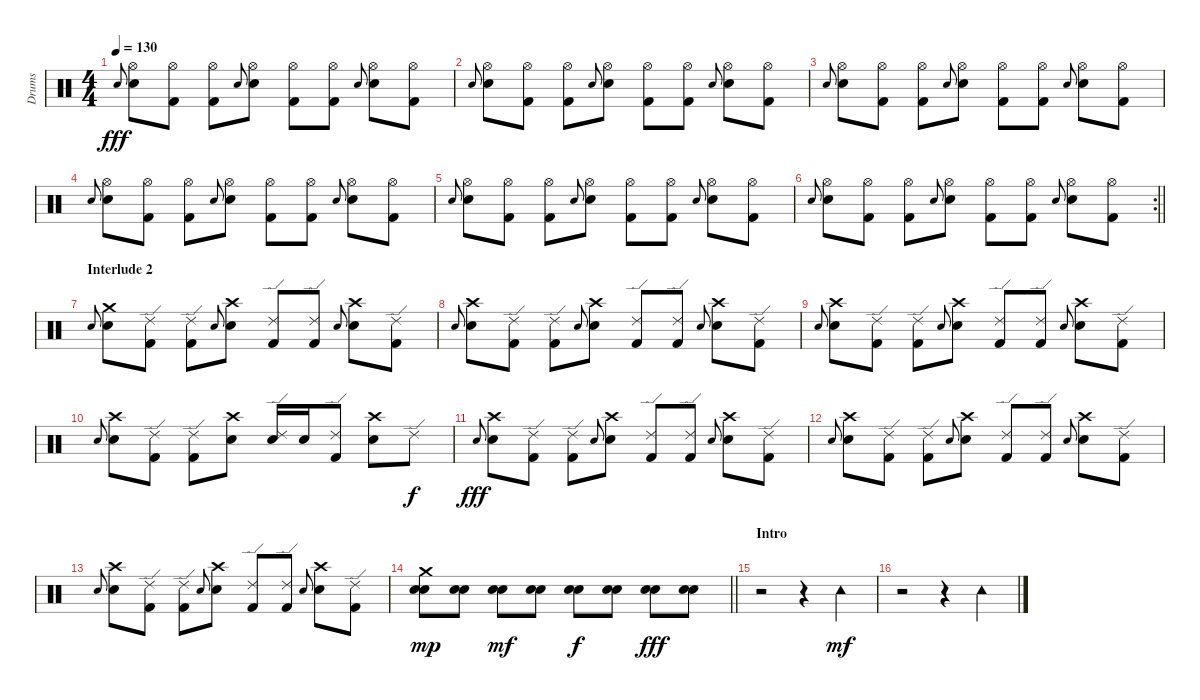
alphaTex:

\track ("Drums" "Drums") {instrument percussion}
\staff {score}
\articulation defaults
\ts (4 4)
\tempo 130
\clef neutral
\ks c "Electric Snare (hit)".8{gr onbeat dy fff}
("Hi-Hat (open)" "Electric Snare (hit)").8 ("Hi-Hat (open)" "Kick (hit) 2").8 ("Hi-Hat (open)" "Kick (hit) 2").8 "Electric Snare (hit)".8{gr onbeat} ("Hi-Hat (open)" "Electric Snare (hit)").8 ("Hi-Hat (open)" "Kick (hit) 2").8 ("Hi-Hat (open)" "Kick (hit) 2").8 "Electric Snare (hit)".8{gr onbeat} ("Hi-Hat (open)" "Electric Snare (hit)").8 ("Hi-Hat (open)" "Kick (hit) 2").8 |
"Electric Snare (hit)".8{gr onbeat} ("Hi-Hat (open)" "Electric Snare (hit)").8 ("Hi-Hat (open)" "Kick (hit) 2").8 ("Hi-Hat (open)" "Kick (hit) 2").8 "Electric Snare (hit)".8{gr onbeat} ("Hi-Hat (open)" "Electric Snare (hit)").8 ("Hi-Hat (open)" "Kick (hit) 2").8 ("Hi-Hat (open)" "Kick (hit) 2").8 "Electric Snare (hit)".8{gr onbeat} ("Hi-Hat (open)" "Electric Snare (hit)").8 ("Hi-Hat (open)" "Kick (hit) 2").8 |
"Electric Snare (hit)".8{gr onbeat} ("Hi-Hat (open)" "Electric Snare (hit)").8 ("Hi-Hat (open)" "Kick (hit) 2").8 ("Hi-Hat (open)" "Kick (hit) 2").8 "Electric Snare (hit)".8{gr onbeat} ("Hi-Hat (open)" "Electric Snare (hit)").8 ("Hi-Hat (open)" "Kick (hit) 2").8 ("Hi-Hat (open)" "Kick (hit) 2").8 "Electric Snare (hit)".8{gr onbeat} ("Hi-Hat (open)" "Electric Snare (hit)").8 ("Hi-Hat (open)" "Kick (hit) 2").8 |
"Electric Snare (hit)".8{gr onbeat} ("Hi-Hat (open)" "Electric Snare (hit)").8 ("Hi-Hat (open)" "Kick (hit) 2").8 ("Hi-Hat (open)" "Kick (hit) 2").8 "Electric Snare (hit)".8{gr onbeat} ("Hi-Hat (open)" "Electric Snare (hit)").8 ("Hi-Hat (open)" "Kick (hit) 2").8 ("Hi-Hat (open)" "Kick (hit) 2").8 "Electric Snare (hit)".8{gr onbeat} ("Hi-Hat (open)" "Electric Snare (hit)").8 ("Hi-Hat (open)" "Kick (hit) 2").8 |
"Electric Snare (hit)".8{gr onbeat} ("Hi-Hat (open)" "Electric Snare (hit)").8 ("Hi-Hat (open)" "Kick (hit) 2").8 ("Hi-Hat (open)" "Kick (hit) 2").8 "Electric Snare (hit)".8{gr onbeat} ("Hi-Hat (open)" "Electric Snare (hit)").8 ("Hi-Hat (open)" "Kick (hit) 2").8 ("Hi-Hat (open)" "Kick (hit) 2").8 "Electric Snare (hit)".8{gr onbeat} ("Hi-Hat (open)" "Electric Snare (hit)").8 ("Hi-Hat (open)" "Kick (hit) 2").8 |
\rc 2
\barLineRight lightlight "Electric Snare (hit)".8{gr onbeat}
("Hi-Hat (open)" "Electric Snare (hit)").8 ("Hi-Hat (open)" "Kick (hit) 2").8 ("Hi-Hat (open)" "Kick (hit) 2").8 "Electric Snare (hit)".8{gr onbeat} ("Hi-Hat (open)" "Electric Snare (hit)").8 ("Hi-Hat (open)" "Kick (hit) 2").8 ("Hi-Hat (open)" "Kick (hit) 2").8 "Electric Snare (hit)".8{gr onbeat} ("Hi-Hat (open)" "Electric Snare (hit)").8 ("Hi-Hat (open)" "Kick (hit) 2").8 |
\section ("" "Interlude 2")
"Electric Snare (hit)".8{gr onbeat} ("Crash medium (hit)" "Electric Snare (hit)").8 ("Ride (edge) 2" "Kick (hit) 2").8 ("Ride (edge) 2" "Kick (hit) 2").8 "Electric Snare (hit)".8{gr onbeat} ("Crash high (hit)" "Electric Snare (hit)").8 ("Ride (edge) 2" "Kick (hit) 2").8 ("Ride (edge) 2" "Kick (hit) 2").8 "Electric Snare (hit)".8{gr onbeat} ("Crash high (hit)" "Electric Snare (hit)").8 ("Ride (edge) 2" "Kick (hit) 2").8 |
"Electric Snare (hit)".8{gr onbeat} ("Crash high (hit)" "Electric Snare (hit)").8 ("Ride (edge) 2" "Kick (hit) 2").8 ("Ride (edge) 2" "Kick (hit) 2").8 "Electric Snare (hit)".8{gr onbeat} ("Crash high (hit)" "Electric Snare (hit)").8 ("Ride (edge) 2" "Kick (hit) 2").8 ("Ride (edge) 2" "Kick (hit) 2").8 "Electric Snare (hit)".8{gr onbeat} ("Crash high (hit)" "Electric Snare (hit)").8 ("Ride (edge) 2" "Kick (hit) 2").8 |
"Electric Snare (hit)".8{gr onbeat} ("Crash high (hit)" "Electric Snare (hit)").8 ("Ride (edge) 2" "Kick (hit) 2").8 ("Ride (edge) 2" "Kick (hit) 2").8 "Electric Snare (hit)".8{gr onbeat} ("Crash high (hit)" "Electric Snare (hit)").8 ("Ride (edge) 2" "Kick (hit) 2").8 ("Ride (edge) 2" "Kick (hit) 2").8 "Electric Snare (hit)".8{gr onbeat} ("Crash high (hit)" "Electric Snare (hit)").8 ("Ride (edge) 2" "Kick (hit) 2").8 |
"Electric Snare (hit)".8{gr onbeat} ("Crash high (hit)" "Electric Snare (hit)").8 ("Ride (edge) 2" "Kick (hit) 2").8 ("Ride (edge) 2" "Kick (hit) 2").8 ("Crash high (hit)" "Electric Snare (hit)").8 ("Ride (edge) 2" "Electric Snare (hit)").16 "Electric Snare (hit)".16 ("Ride (edge) 2" "Kick (hit) 2").8 ("Crash high (hit)" "Electric Snare (hit)").8 "Ride (edge) 2".8{dy f} |
"Electric Snare (hit)".8{gr onbeat dy fff} ("Crash high (hit)" "Electric Snare (hit)").8 ("Ride (edge) 2" "Kick (hit) 2").8 ("Ride (edge) 2" "Kick (hit) 2").8 "Electric Snare (hit)".8{gr onbeat} ("Crash high (hit)" "Electric Snare (hit)").8 ("Ride (edge) 2" "Kick (hit) 2").8 ("Ride (edge) 2" "Kick (hit) 2").8 "Electric Snare (hit)".8{gr onbeat} ("Crash high (hit)" "Electric Snare (hit)").8 ("Ride (edge) 2" "Kick (hit) 2").8 |
"Electric Snare (hit)".8{gr onbeat} ("Crash high (hit)" "Electric Snare (hit)").8 ("Ride (edge) 2" "Kick (hit) 2").8 ("Ride (edge) 2" "Kick (hit) 2").8 "Electric Snare (hit)".8{gr onbeat} ("Crash high (hit)" "Electric Snare (hit)").8 ("Ride (edge) 2" "Kick (hit) 2").8 ("Ride (edge) 2" "Kick (hit) 2").8 "Electric Snare (hit)".8{gr onbeat} ("Crash high (hit)" "Electric Snare (hit)").8 ("Ride (edge) 2" "Kick (hit) 2").8 |
"Electric Snare (hit)".8{gr onbeat} ("Crash high (hit)" "Electric Snare (hit)").8 ("Ride (edge) 2" "Kick (hit) 2").8 ("Ride (edge) 2" "Kick (hit) 2").8 "Electric Snare (hit)".8{gr onbeat} ("Crash high (hit)" "Electric Snare (hit)").8 ("Ride (edge) 2" "Kick (hit) 2").8 ("Ride (edge) 2" "Kick (hit) 2").8 "Electric Snare (hit)".8{gr onbeat} ("Crash high (hit)" "Electric Snare (hit)").8 ("Ride (edge) 2" "Kick (hit) 2").8 |
\barLineRight lightlight
("Crash medium (hit)" "Electric Snare (hit)" "Electric Snare (hit)").8{dy mp} ("Electric Snare (hit)" "Electric Snare (hit)").8 ("Electric Snare (hit)" "Electric Snare (hit)").8{dy mf} ("Electric Snare (hit)" "Electric Snare (hit)").8 ("Electric Snare (hit)" "Electric Snare (hit)").8{dy f} ("Electric Snare (hit)" "Electric Snare (hit)").8 ("Electric Snare (hit)" "Electric Snare (hit)").8{dy fff} ("Electric Snare (hit)" "Electric Snare (hit)").8 |
\section ("" "Intro")
r.2 r.4 "Tambourine (hit)".4{dy mf} |
r.2 r.4 "Tambourine (hit)".4
